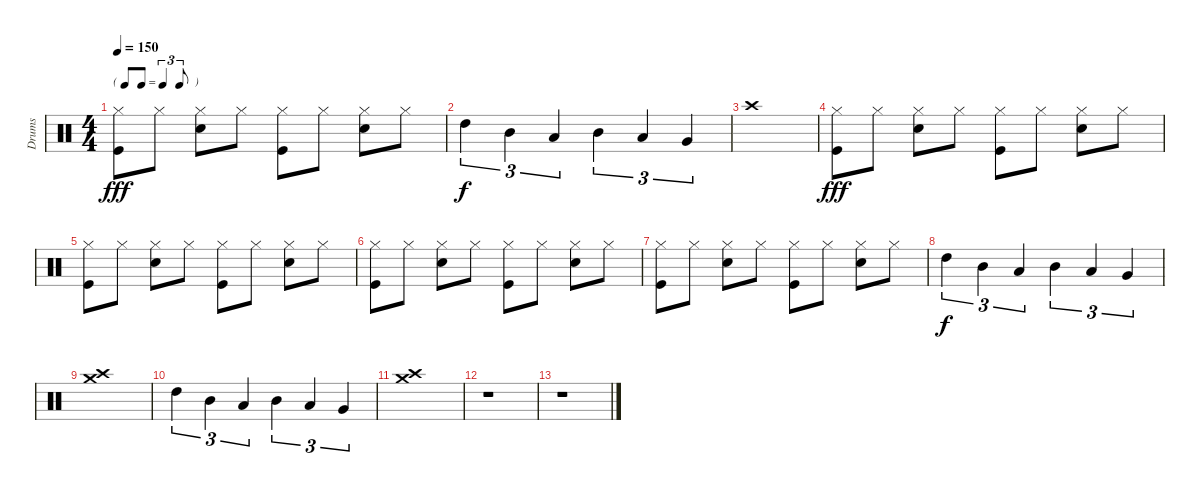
\track ("Drums" "Drums") {instrument percussion}
\staff {score}
\articulation defaults
\ts (4 4)
\tf triplet8th
\tempo 150
\clef neutral
\ks c
("Kick (hit)" "Hi-Hat (closed)").8{dy fff} "Hi-Hat (closed)".8 ("Snare (hit) 2" "Hi-Hat (closed)").8 "Hi-Hat (closed)".8 ("Kick (hit)" "Hi-Hat (closed)").8 "Hi-Hat (closed)".8 ("Snare (hit) 2" "Hi-Hat (closed)").8 "Hi-Hat (closed)".8 |
"High Tom (hit)".4{tu (3 2) dy f} "Mid Tom (hit)".4{tu (3 2)} "Low Tom (hit)".4{tu (3 2)} "Mid Tom (hit)".4{tu (3 2)} "Low Tom (hit)".4{tu (3 2)} "Very Low Tom (hit)".4{tu (3 2)} |
"Crash high (hit)".1 |
("Kick (hit)" "Hi-Hat (closed)").8{dy fff} "Hi-Hat (closed)".8 ("Snare (hit) 2" "Hi-Hat (closed)").8 "Hi-Hat (closed)".8 ("Kick (hit)" "Hi-Hat (closed)").8 "Hi-Hat (closed)".8 ("Snare (hit) 2" "Hi-Hat (closed)").8 "Hi-Hat (closed)".8 |
("Kick (hit)" "Hi-Hat (closed)").8 "Hi-Hat (closed)".8 ("Snare (hit) 2" "Hi-Hat (closed)").8 "Hi-Hat (closed)".8 ("Kick (hit)" "Hi-Hat (closed)").8 "Hi-Hat (closed)".8 ("Snare (hit) 2" "Hi-Hat (closed)").8 "Hi-Hat (closed)".8 |
("Kick (hit)" "Hi-Hat (closed)").8 "Hi-Hat (closed)".8 ("Snare (hit) 2" "Hi-Hat (closed)").8 "Hi-Hat (closed)".8 ("Kick (hit)" "Hi-Hat (closed)").8 "Hi-Hat (closed)".8 ("Snare (hit) 2" "Hi-Hat (closed)").8 "Hi-Hat (closed)".8 |
("Kick (hit)" "Hi-Hat (closed)").8 "Hi-Hat (closed)".8 ("Snare (hit) 2" "Hi-Hat (closed)").8 "Hi-Hat (closed)".8 ("Kick (hit)" "Hi-Hat (closed)").8 "Hi-Hat (closed)".8 ("Snare (hit) 2" "Hi-Hat (closed)").8 "Hi-Hat (closed)".8 |
"High Tom (hit)".4{tu (3 2) dy f} "Mid Tom (hit)".4{tu (3 2)} "Low Tom (hit)".4{tu (3 2)} "Mid Tom (hit)".4{tu (3 2)} "Low Tom (hit)".4{tu (3 2)} "Very Low Tom (hit)".4{tu (3 2)} |
("Crash medium (hit)" "Crash high (hit)").1 |
"High Tom (hit)".4{tu (3 2)} "Mid Tom (hit)".4{tu (3 2)} "Low Tom (hit)".4{tu (3 2)} "Mid Tom (hit)".4{tu (3 2)} "Low Tom (hit)".4{tu (3 2)} "Very Low Tom (hit)".4{tu (3 2)} |
("Crash medium (hit)" "Crash high (hit)").1 |
r.1 |
r.1
